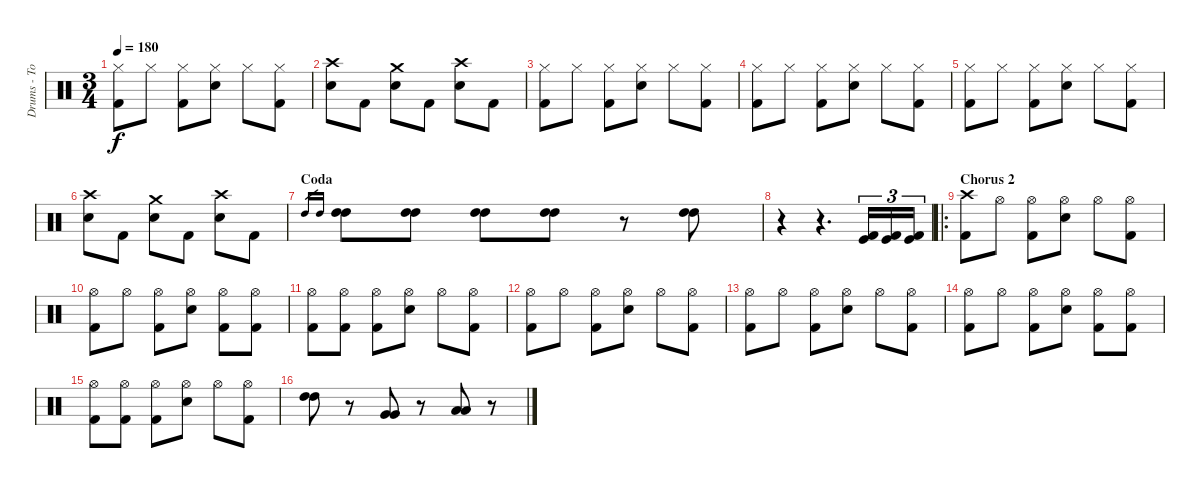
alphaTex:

\track ("Drums - Tomas" "Drums - To") {instrument percussion}
\staff {score}
\articulation defaults
\ts (3 4)
\tempo 180
\clef neutral
\ks c
("Hi-Hat (closed)" "Kick (hit) 2").8{dy f} "Hi-Hat (closed)".8 ("Hi-Hat (closed)" "Kick (hit) 2").8 ("Hi-Hat (closed)" "Electric Snare (hit)").8 "Hi-Hat (closed)".8 ("Hi-Hat (closed)" "Kick (hit) 2").8 |
("Crash high (hit)" "Electric Snare (hit)").8 "Kick (hit) 2".8{volume 0} ("Crash medium (hit)" "Electric Snare (hit)").8{volume 16} "Kick (hit) 2".8{volume 0} ("Crash high (hit)" "Electric Snare (hit)").8{volume 16} "Kick (hit) 2".8{volume 0} |
("Hi-Hat (closed)" "Kick (hit) 2").8{volume 16} "Hi-Hat (closed)".8 ("Hi-Hat (closed)" "Kick (hit) 2").8 ("Hi-Hat (closed)" "Electric Snare (hit)").8 "Hi-Hat (closed)".8 ("Hi-Hat (closed)" "Kick (hit) 2").8 |
("Hi-Hat (closed)" "Kick (hit) 2").8 "Hi-Hat (closed)".8 ("Hi-Hat (closed)" "Kick (hit) 2").8 ("Hi-Hat (closed)" "Electric Snare (hit)").8 "Hi-Hat (closed)".8 ("Hi-Hat (closed)" "Kick (hit) 2").8 |
("Hi-Hat (closed)" "Kick (hit) 2").8 "Hi-Hat (closed)".8 ("Hi-Hat (closed)" "Kick (hit) 2").8 ("Hi-Hat (closed)" "Electric Snare (hit)").8 "Hi-Hat (closed)".8 ("Hi-Hat (closed)" "Kick (hit) 2").8 |
("Crash high (hit)" "Electric Snare (hit)").8 "Kick (hit) 2".8 ("Crash medium (hit)" "Electric Snare (hit)").8{volume 16} "Kick (hit) 2".8 ("Crash high (hit)" "Electric Snare (hit)").8{volume 16} "Kick (hit) 2".8 |
\section ("" "Coda")
"High Tom (hit)".16{gr} "High Tom (hit)".16{gr} ("High Tom (hit)" "High Tom (hit)").8{volume 16} ("High Tom (hit)" "High Tom (hit)").8 ("High Tom (hit)" "High Tom (hit)").8 ("High Tom (hit)" "High Tom (hit)").8 r.8 ("High Tom (hit)" "High Tom (hit)").8 |
r.4 r.4{d} ("Kick (hit)" "Kick (hit) 2").16{tu (3 2)} ("Kick (hit)" "Kick (hit) 2").16{tu (3 2)} ("Kick (hit)" "Kick (hit) 2").16{tu (3 2)} |
\ro
\section ("" "Chorus 2")
("Crash high (hit)" "Kick (hit) 2").8 "Hi-Hat (open)".8 ("Hi-Hat (open)" "Kick (hit) 2").8 ("Hi-Hat (open)" "Electric Snare (hit)").8 "Hi-Hat (open)".8 ("Hi-Hat (open)" "Kick (hit) 2").8 |
("Hi-Hat (open)" "Kick (hit) 2").8 "Hi-Hat (open)".8 ("Hi-Hat (open)" "Kick (hit) 2").8 ("Hi-Hat (open)" "Electric Snare (hit)").8 ("Hi-Hat (open)" "Kick (hit) 2").8 ("Hi-Hat (open)" "Kick (hit) 2").8 |
("Hi-Hat (open)" "Kick (hit) 2").8 ("Hi-Hat (open)" "Kick (hit) 2").8 ("Hi-Hat (open)" "Kick (hit) 2").8 ("Hi-Hat (open)" "Electric Snare (hit)").8 "Hi-Hat (open)".8 ("Hi-Hat (open)" "Kick (hit) 2").8 |
("Hi-Hat (open)" "Kick (hit) 2").8 "Hi-Hat (open)".8 ("Hi-Hat (open)" "Kick (hit) 2").8 ("Hi-Hat (open)" "Electric Snare (hit)").8 "Hi-Hat (open)".8 ("Hi-Hat (open)" "Kick (hit) 2").8 |
("Hi-Hat (open)" "Kick (hit) 2").8 "Hi-Hat (open)".8 ("Hi-Hat (open)" "Kick (hit) 2").8 ("Hi-Hat (open)" "Electric Snare (hit)").8 "Hi-Hat (open)".8 ("Hi-Hat (open)" "Kick (hit) 2").8 |
("Hi-Hat (open)" "Kick (hit) 2").8 "Hi-Hat (open)".8 ("Hi-Hat (open)" "Kick (hit) 2").8 ("Hi-Hat (open)" "Electric Snare (hit)").8 ("Hi-Hat (open)" "Kick (hit) 2").8 ("Hi-Hat (open)" "Kick (hit) 2").8 |
("Hi-Hat (open)" "Kick (hit) 2").8 ("Hi-Hat (open)" "Kick (hit) 2").8 ("Hi-Hat (open)" "Kick (hit) 2").8 ("Hi-Hat (open)" "Electric Snare (hit)").8 "Hi-Hat (open)".8 ("Hi-Hat (open)" "Kick (hit) 2").8 |
("High Tom (hit)" "High Tom (hit)").8 r.8 ("Very Low Tom (hit)" "Very Low Tom (hit)").8 r.8 ("Low Tom (hit)" "Low Tom (hit)").8 r.8
